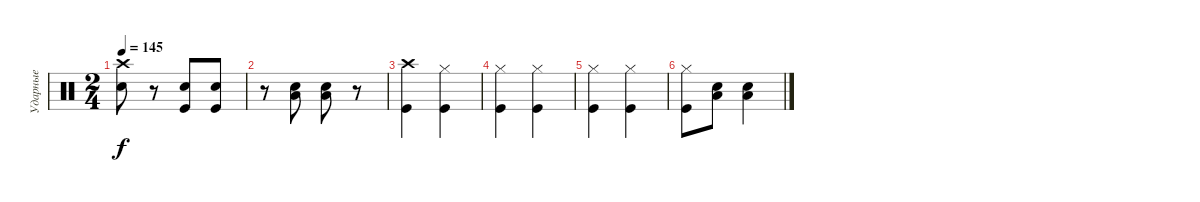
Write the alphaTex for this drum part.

\track ("Ударные" "Ударные") {instrument percussion}
\staff {score}
\articulation defaults
\ts (2 4)
\tempo 145
\clef neutral
\ks c
("Crash high (hit)" "Electric Snare (hit)").8{dy f} r.8 ("Kick (hit)" "Electric Snare (hit)").8 ("Kick (hit)" "Electric Snare (hit)").8 |
r.8 ("Low Tom (hit)" "Electric Snare (hit)").8 ("Low Tom (hit)" "Electric Snare (hit)").8 r.8 |
("Crash high (hit)" "Kick (hit)").4 ("Hi-Hat (closed)" "Kick (hit)").4 |
("Hi-Hat (closed)" "Kick (hit)").4 ("Hi-Hat (closed)" "Kick (hit)").4 |
("Hi-Hat (closed)" "Kick (hit)").4 ("Hi-Hat (closed)" "Kick (hit)").4 |
("Hi-Hat (closed)" "Kick (hit)").8 ("Low Tom (hit)" "Electric Snare (hit)").8 ("Low Tom (hit)" "Electric Snare (hit)").4
